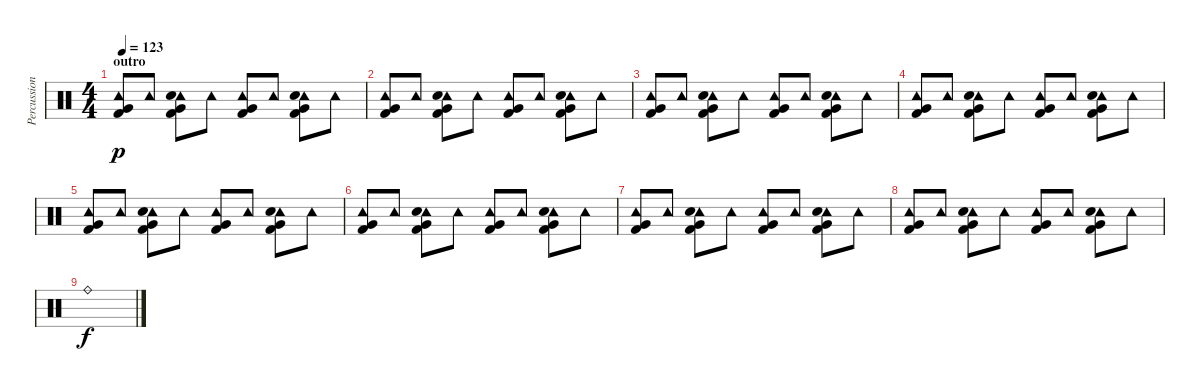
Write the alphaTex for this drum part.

\track ("Percussion" "Percussion") {instrument percussion}
\staff {score}
\articulation defaults
\ts (4 4)
\section ("" "outro")
\tempo 123
\clef neutral
\ks c
("Tambourine (hit)" "Very Low Tom (hit)" "Kick (hit) 2").8{dy p} "Tambourine (hit)".8 ("Tambourine (hit)" "Very Low Tom (hit)" "Snare (hit) 2" "Kick (hit) 2").8 "Tambourine (hit)".8 ("Tambourine (hit)" "Very Low Tom (hit)" "Kick (hit) 2").8 "Tambourine (hit)".8 ("Tambourine (hit)" "Very Low Tom (hit)" "Snare (hit) 2" "Kick (hit) 2").8 "Tambourine (hit)".8 |
("Tambourine (hit)" "Very Low Tom (hit)" "Kick (hit) 2").8 "Tambourine (hit)".8 ("Tambourine (hit)" "Very Low Tom (hit)" "Snare (hit) 2" "Kick (hit) 2").8 "Tambourine (hit)".8 ("Tambourine (hit)" "Very Low Tom (hit)" "Kick (hit) 2").8 "Tambourine (hit)".8 ("Tambourine (hit)" "Very Low Tom (hit)" "Snare (hit) 2" "Kick (hit) 2").8 "Tambourine (hit)".8 |
("Tambourine (hit)" "Very Low Tom (hit)" "Kick (hit) 2").8 "Tambourine (hit)".8 ("Tambourine (hit)" "Very Low Tom (hit)" "Snare (hit) 2" "Kick (hit) 2").8 "Tambourine (hit)".8 ("Tambourine (hit)" "Very Low Tom (hit)" "Kick (hit) 2").8 "Tambourine (hit)".8 ("Tambourine (hit)" "Very Low Tom (hit)" "Snare (hit) 2" "Kick (hit) 2").8 "Tambourine (hit)".8 |
("Tambourine (hit)" "Very Low Tom (hit)" "Kick (hit) 2").8 "Tambourine (hit)".8 ("Tambourine (hit)" "Very Low Tom (hit)" "Snare (hit) 2" "Kick (hit) 2").8 "Tambourine (hit)".8 ("Tambourine (hit)" "Very Low Tom (hit)" "Kick (hit) 2").8 "Tambourine (hit)".8 ("Tambourine (hit)" "Very Low Tom (hit)" "Snare (hit) 2" "Kick (hit) 2").8 "Tambourine (hit)".8 |
("Tambourine (hit)" "Very Low Tom (hit)" "Kick (hit) 2").8 "Tambourine (hit)".8 ("Tambourine (hit)" "Very Low Tom (hit)" "Snare (hit) 2" "Kick (hit) 2").8 "Tambourine (hit)".8 ("Tambourine (hit)" "Very Low Tom (hit)" "Kick (hit) 2").8 "Tambourine (hit)".8 ("Tambourine (hit)" "Very Low Tom (hit)" "Snare (hit) 2" "Kick (hit) 2").8 "Tambourine (hit)".8 |
("Tambourine (hit)" "Very Low Tom (hit)" "Kick (hit) 2").8 "Tambourine (hit)".8 ("Tambourine (hit)" "Very Low Tom (hit)" "Snare (hit) 2" "Kick (hit) 2").8 "Tambourine (hit)".8 ("Tambourine (hit)" "Very Low Tom (hit)" "Kick (hit) 2").8 "Tambourine (hit)".8 ("Tambourine (hit)" "Very Low Tom (hit)" "Snare (hit) 2" "Kick (hit) 2").8 "Tambourine (hit)".8 |
("Tambourine (hit)" "Very Low Tom (hit)" "Kick (hit) 2").8 "Tambourine (hit)".8 ("Tambourine (hit)" "Very Low Tom (hit)" "Snare (hit) 2" "Kick (hit) 2").8 "Tambourine (hit)".8 ("Tambourine (hit)" "Very Low Tom (hit)" "Kick (hit) 2").8 "Tambourine (hit)".8 ("Tambourine (hit)" "Very Low Tom (hit)" "Snare (hit) 2" "Kick (hit) 2").8 "Tambourine (hit)".8 |
("Tambourine (hit)" "Very Low Tom (hit)" "Kick (hit) 2").8 "Tambourine (hit)".8 ("Tambourine (hit)" "Very Low Tom (hit)" "Snare (hit) 2" "Kick (hit) 2").8 "Tambourine (hit)".8 ("Tambourine (hit)" "Very Low Tom (hit)" "Kick (hit) 2").8 "Tambourine (hit)".8 ("Tambourine (hit)" "Very Low Tom (hit)" "Snare (hit) 2" "Kick (hit) 2").8 "Tambourine (hit)".8 |
"Ride (bell)".1{dy f}
